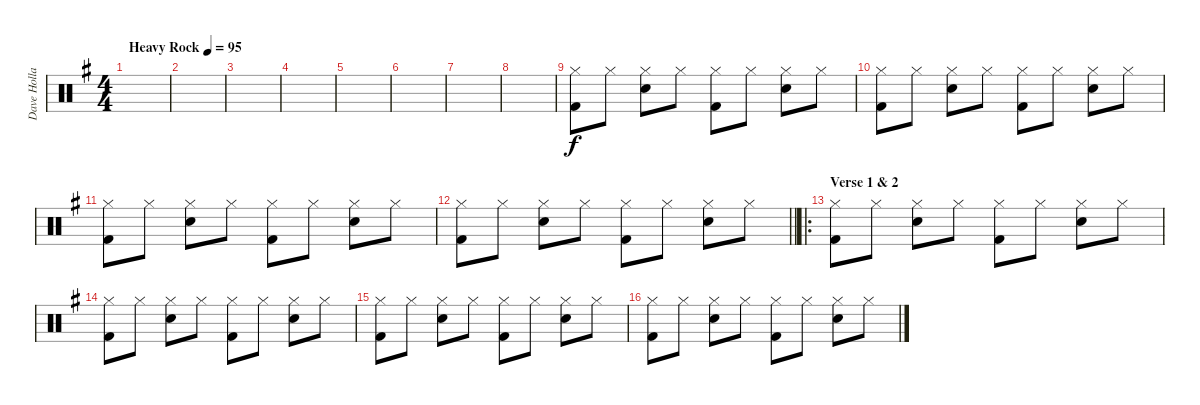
\track ("Dave Holland" "Dave Holla") {instrument percussion}
\staff {score}
\articulation defaults
\ts (4 4)
\tempo (95 "Heavy Rock")
\clef neutral
\ks g
|
|
|
|
|
|
|
|
("Hi-Hat (closed)" "Kick (hit) 2").8 "Hi-Hat (closed)".8 ("Hi-Hat (closed)" "Snare (hit) 2").8 "Hi-Hat (closed)".8 ("Hi-Hat (closed)" "Kick (hit) 2").8 "Hi-Hat (closed)".8 ("Hi-Hat (closed)" "Snare (hit) 2").8 "Hi-Hat (closed)".8 |
("Hi-Hat (closed)" "Kick (hit) 2").8 "Hi-Hat (closed)".8 ("Hi-Hat (closed)" "Snare (hit) 2").8 "Hi-Hat (closed)".8 ("Hi-Hat (closed)" "Kick (hit) 2").8 "Hi-Hat (closed)".8 ("Hi-Hat (closed)" "Snare (hit) 2").8 "Hi-Hat (closed)".8 |
("Hi-Hat (closed)" "Kick (hit) 2").8 "Hi-Hat (closed)".8 ("Hi-Hat (closed)" "Snare (hit) 2").8 "Hi-Hat (closed)".8 ("Hi-Hat (closed)" "Kick (hit) 2").8 "Hi-Hat (closed)".8 ("Hi-Hat (closed)" "Snare (hit) 2").8 "Hi-Hat (closed)".8 |
\barLineRight lightlight
("Hi-Hat (closed)" "Kick (hit) 2").8 "Hi-Hat (closed)".8 ("Hi-Hat (closed)" "Snare (hit) 2").8 "Hi-Hat (closed)".8 ("Hi-Hat (closed)" "Kick (hit) 2").8 "Hi-Hat (closed)".8 ("Hi-Hat (closed)" "Snare (hit) 2").8 "Hi-Hat (closed)".8 |
\ro
\section ("" "Verse 1 & 2")
("Hi-Hat (closed)" "Kick (hit) 2").8 "Hi-Hat (closed)".8 ("Hi-Hat (closed)" "Snare (hit) 2").8 "Hi-Hat (closed)".8 ("Hi-Hat (closed)" "Kick (hit) 2").8 "Hi-Hat (closed)".8 ("Hi-Hat (closed)" "Snare (hit) 2").8 "Hi-Hat (closed)".8 |
("Hi-Hat (closed)" "Kick (hit) 2").8 "Hi-Hat (closed)".8 ("Hi-Hat (closed)" "Snare (hit) 2").8 "Hi-Hat (closed)".8 ("Hi-Hat (closed)" "Kick (hit) 2").8 "Hi-Hat (closed)".8 ("Hi-Hat (closed)" "Snare (hit) 2").8 "Hi-Hat (closed)".8 |
("Hi-Hat (closed)" "Kick (hit) 2").8 "Hi-Hat (closed)".8 ("Hi-Hat (closed)" "Snare (hit) 2").8 "Hi-Hat (closed)".8 ("Hi-Hat (closed)" "Kick (hit) 2").8 "Hi-Hat (closed)".8 ("Hi-Hat (closed)" "Snare (hit) 2").8 "Hi-Hat (closed)".8 |
("Hi-Hat (closed)" "Kick (hit) 2").8 "Hi-Hat (closed)".8 ("Hi-Hat (closed)" "Snare (hit) 2").8 "Hi-Hat (closed)".8 ("Hi-Hat (closed)" "Kick (hit) 2").8 "Hi-Hat (closed)".8 ("Hi-Hat (closed)" "Snare (hit) 2").8 "Hi-Hat (closed)".8
